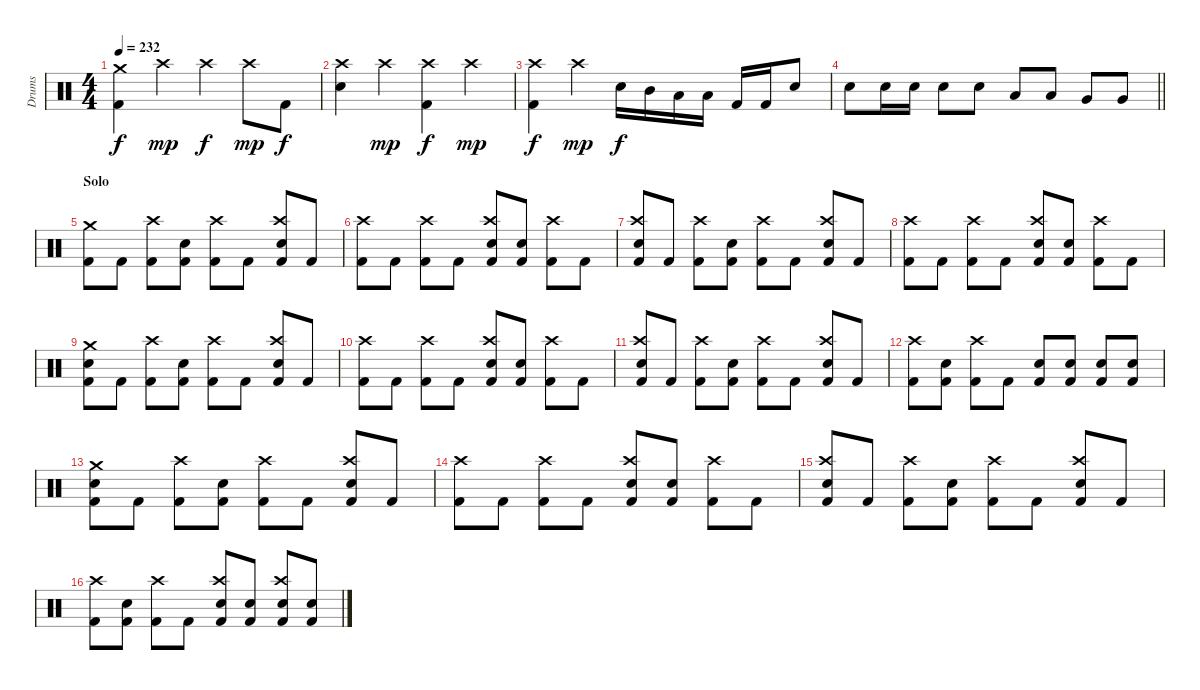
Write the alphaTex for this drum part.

\track ("Drums" "Drums") {instrument percussion}
\staff {score}
\articulation defaults
\ts (4 4)
\tempo 232
\clef neutral
\ks c
("Crash medium (hit)" "Kick (hit) 2").4{dy f} "Crash high (hit)".4{dy mp} "Crash high (hit)".4{dy f} "Crash high (hit)".8{dy mp} "Kick (hit) 2".8{dy f} |
("Electric Snare (hit)" "Crash high (hit)").4 "Crash high (hit)".4{dy mp} ("Crash high (hit)" "Kick (hit) 2").4{dy f} "Crash high (hit)".4{dy mp} |
("Crash high (hit)" "Kick (hit) 2").4{dy f} "Crash high (hit)".4{dy mp} "Electric Snare (hit)".16{dy f} "Mid Tom (hit)".16 "Low Tom (hit)".16 "Low Tom (hit)".16 "Kick (hit) 2".16 "Kick (hit) 2".16 "Electric Snare (hit)".8 |
\barLineRight lightlight "Electric Snare (hit)".8 "Electric Snare (hit)".16 "Electric Snare (hit)".16 "Electric Snare (hit)".8 "Electric Snare (hit)".8 "Low Tom (hit)".8 "Low Tom (hit)".8 "Very Low Tom (hit)".8 "Very Low Tom (hit)".8
|
\section ("" "Solo")
("Kick (hit) 2" "Crash medium (hit)").8 "Kick (hit) 2".8 ("Kick (hit) 2" "Crash high (hit)").8 ("Kick (hit) 2" "Electric Snare (hit)").8 ("Kick (hit) 2" "Crash high (hit)").8 "Kick (hit) 2".8 ("Kick (hit) 2" "Crash high (hit)" "Electric Snare (hit)").8 "Kick (hit) 2".8 |
("Kick (hit) 2" "Crash high (hit)").8 "Kick (hit) 2".8 ("Kick (hit) 2" "Crash high (hit)").8 "Kick (hit) 2".8 ("Kick (hit) 2" "Crash high (hit)" "Electric Snare (hit)").8 ("Kick (hit) 2" "Electric Snare (hit)").8 ("Kick (hit) 2" "Crash high (hit)").8 "Kick (hit) 2".8 |
("Kick (hit) 2" "Crash high (hit)" "Electric Snare (hit)").8 "Kick (hit) 2".8 ("Kick (hit) 2" "Crash high (hit)").8 ("Kick (hit) 2" "Electric Snare (hit)").8 ("Kick (hit) 2" "Crash high (hit)").8 "Kick (hit) 2".8 ("Kick (hit) 2" "Crash high (hit)" "Electric Snare (hit)").8 "Kick (hit) 2".8 |
("Kick (hit) 2" "Crash high (hit)").8 "Kick (hit) 2".8 ("Kick (hit) 2" "Crash high (hit)").8 "Kick (hit) 2".8 ("Kick (hit) 2" "Crash high (hit)" "Electric Snare (hit)").8 ("Kick (hit) 2" "Electric Snare (hit)").8 ("Kick (hit) 2" "Crash high (hit)").8 "Kick (hit) 2".8 |
("Kick (hit) 2" "Crash medium (hit)" "Electric Snare (hit)").8 "Kick (hit) 2".8 ("Kick (hit) 2" "Crash high (hit)").8 ("Kick (hit) 2" "Electric Snare (hit)").8 ("Kick (hit) 2" "Crash high (hit)").8 "Kick (hit) 2".8 ("Kick (hit) 2" "Crash high (hit)" "Electric Snare (hit)").8 "Kick (hit) 2".8 |
("Kick (hit) 2" "Crash high (hit)").8 "Kick (hit) 2".8 ("Kick (hit) 2" "Crash high (hit)").8 "Kick (hit) 2".8 ("Kick (hit) 2" "Crash high (hit)" "Electric Snare (hit)").8 ("Kick (hit) 2" "Electric Snare (hit)").8 ("Kick (hit) 2" "Crash high (hit)").8 "Kick (hit) 2".8 |
("Kick (hit) 2" "Crash high (hit)" "Electric Snare (hit)").8 "Kick (hit) 2".8 ("Kick (hit) 2" "Crash high (hit)").8 ("Kick (hit) 2" "Electric Snare (hit)").8 ("Kick (hit) 2" "Crash high (hit)").8 "Kick (hit) 2".8 ("Kick (hit) 2" "Crash high (hit)" "Electric Snare (hit)").8 "Kick (hit) 2".8 |
("Kick (hit) 2" "Crash high (hit)").8 ("Kick (hit) 2" "Electric Snare (hit)").8 ("Kick (hit) 2" "Crash high (hit)").8 "Kick (hit) 2".8 ("Kick (hit) 2" "Electric Snare (hit)").8 ("Kick (hit) 2" "Electric Snare (hit)").8 ("Kick (hit) 2" "Electric Snare (hit)").8 ("Kick (hit) 2" "Electric Snare (hit)").8 |
("Kick (hit) 2" "Crash medium (hit)" "Electric Snare (hit)").8 "Kick (hit) 2".8 ("Kick (hit) 2" "Crash high (hit)").8 ("Kick (hit) 2" "Electric Snare (hit)").8 ("Kick (hit) 2" "Crash high (hit)").8 "Kick (hit) 2".8 ("Kick (hit) 2" "Crash high (hit)" "Electric Snare (hit)").8 "Kick (hit) 2".8 |
("Kick (hit) 2" "Crash high (hit)").8 "Kick (hit) 2".8 ("Kick (hit) 2" "Crash high (hit)").8 "Kick (hit) 2".8 ("Kick (hit) 2" "Crash high (hit)" "Electric Snare (hit)").8 ("Kick (hit) 2" "Electric Snare (hit)").8 ("Kick (hit) 2" "Crash high (hit)").8 "Kick (hit) 2".8 |
("Kick (hit) 2" "Crash high (hit)" "Electric Snare (hit)").8 "Kick (hit) 2".8 ("Kick (hit) 2" "Crash high (hit)").8 ("Kick (hit) 2" "Electric Snare (hit)").8 ("Kick (hit) 2" "Crash high (hit)").8 "Kick (hit) 2".8 ("Kick (hit) 2" "Crash high (hit)" "Electric Snare (hit)").8 "Kick (hit) 2".8 |
("Kick (hit) 2" "Crash high (hit)").8 ("Kick (hit) 2" "Electric Snare (hit)").8 ("Kick (hit) 2" "Crash high (hit)").8 "Kick (hit) 2".8 ("Kick (hit) 2" "Crash high (hit)" "Electric Snare (hit)").8 ("Kick (hit) 2" "Electric Snare (hit)").8 ("Kick (hit) 2" "Electric Snare (hit)" "Crash high (hit)").8 ("Kick (hit) 2" "Electric Snare (hit)").8
